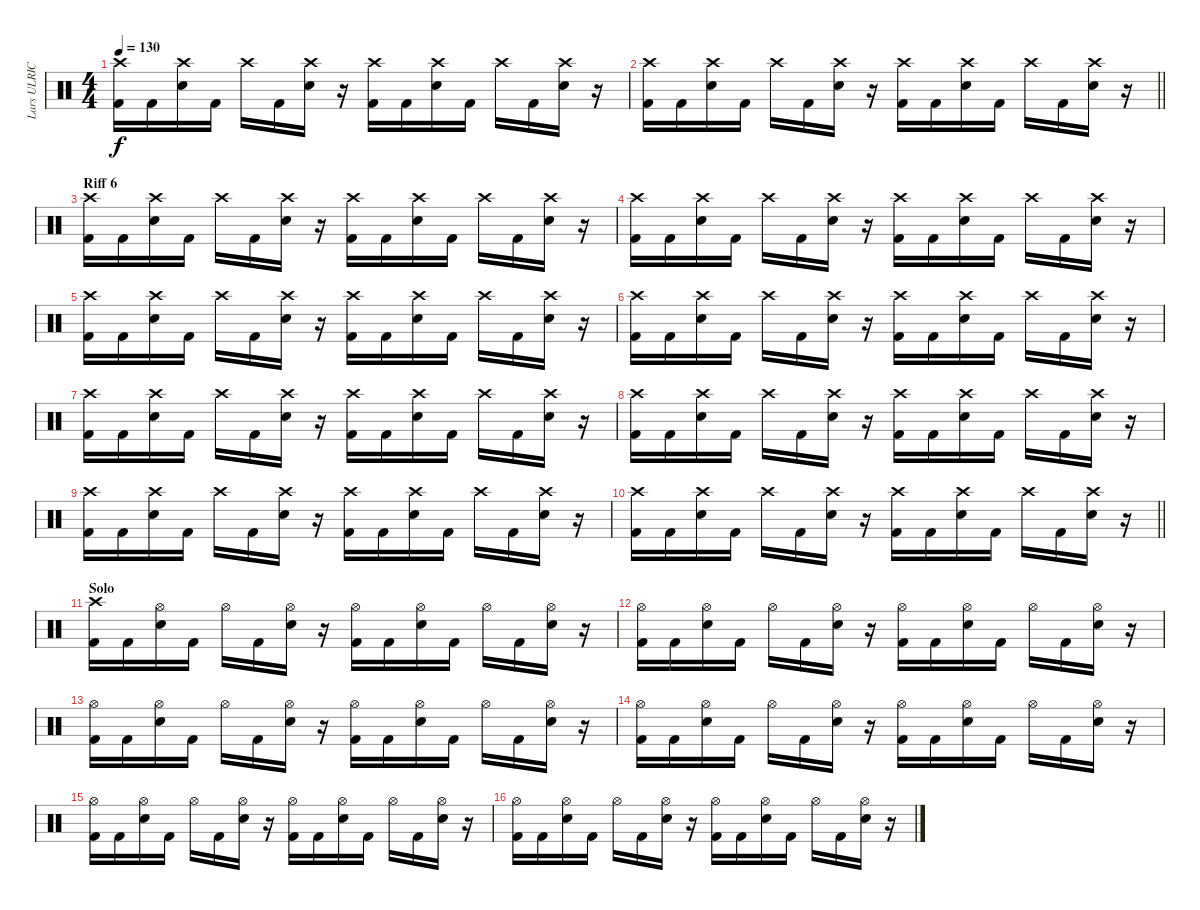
\track ("Lars ULRICH" "Lars ULRIC") {instrument percussion}
\staff {score}
\articulation defaults
\ts (4 4)
\tempo 130
\clef neutral
\ks c
("Crash high (hit)" "Kick (hit) 2").16{dy f} "Kick (hit) 2".16 ("Crash high (hit)" "Snare (hit) 2").16 "Kick (hit) 2".16 "Crash high (hit)".16 "Kick (hit) 2".16 ("Crash high (hit)" "Snare (hit) 2").16 r.16 ("Crash high (hit)" "Kick (hit) 2").16 "Kick (hit) 2".16 ("Crash high (hit)" "Snare (hit) 2").16 "Kick (hit) 2".16 "Crash high (hit)".16 "Kick (hit) 2".16 ("Crash high (hit)" "Snare (hit) 2").16 r.16 |
\barLineRight lightlight
("Crash high (hit)" "Kick (hit) 2").16 "Kick (hit) 2".16 ("Crash high (hit)" "Snare (hit) 2").16 "Kick (hit) 2".16 "Crash high (hit)".16 "Kick (hit) 2".16 ("Crash high (hit)" "Snare (hit) 2").16 r.16 ("Crash high (hit)" "Kick (hit) 2").16 "Kick (hit) 2".16 ("Crash high (hit)" "Snare (hit) 2").16 "Kick (hit) 2".16 "Crash high (hit)".16 "Kick (hit) 2".16 ("Crash high (hit)" "Snare (hit) 2").16 r.16 |
\section ("" "Riff 6")
("Crash high (hit)" "Kick (hit) 2").16 "Kick (hit) 2".16 ("Crash high (hit)" "Snare (hit) 2").16 "Kick (hit) 2".16 "Crash high (hit)".16 "Kick (hit) 2".16 ("Crash high (hit)" "Snare (hit) 2").16 r.16 ("Crash high (hit)" "Kick (hit) 2").16 "Kick (hit) 2".16 ("Crash high (hit)" "Snare (hit) 2").16 "Kick (hit) 2".16 "Crash high (hit)".16 "Kick (hit) 2".16 ("Crash high (hit)" "Snare (hit) 2").16 r.16 |
("Crash high (hit)" "Kick (hit) 2").16 "Kick (hit) 2".16 ("Crash high (hit)" "Snare (hit) 2").16 "Kick (hit) 2".16 "Crash high (hit)".16 "Kick (hit) 2".16 ("Crash high (hit)" "Snare (hit) 2").16 r.16 ("Crash high (hit)" "Kick (hit) 2").16 "Kick (hit) 2".16 ("Crash high (hit)" "Snare (hit) 2").16 "Kick (hit) 2".16 "Crash high (hit)".16 "Kick (hit) 2".16 ("Crash high (hit)" "Snare (hit) 2").16 r.16 |
("Crash high (hit)" "Kick (hit) 2").16 "Kick (hit) 2".16 ("Crash high (hit)" "Snare (hit) 2").16 "Kick (hit) 2".16 "Crash high (hit)".16 "Kick (hit) 2".16 ("Crash high (hit)" "Snare (hit) 2").16 r.16 ("Crash high (hit)" "Kick (hit) 2").16 "Kick (hit) 2".16 ("Crash high (hit)" "Snare (hit) 2").16 "Kick (hit) 2".16 "Crash high (hit)".16 "Kick (hit) 2".16 ("Crash high (hit)" "Snare (hit) 2").16 r.16 |
("Crash high (hit)" "Kick (hit) 2").16 "Kick (hit) 2".16 ("Crash high (hit)" "Snare (hit) 2").16 "Kick (hit) 2".16 "Crash high (hit)".16 "Kick (hit) 2".16 ("Crash high (hit)" "Snare (hit) 2").16 r.16 ("Crash high (hit)" "Kick (hit) 2").16 "Kick (hit) 2".16 ("Crash high (hit)" "Snare (hit) 2").16 "Kick (hit) 2".16 "Crash high (hit)".16 "Kick (hit) 2".16 ("Crash high (hit)" "Snare (hit) 2").16 r.16 |
("Crash high (hit)" "Kick (hit) 2").16 "Kick (hit) 2".16 ("Crash high (hit)" "Snare (hit) 2").16 "Kick (hit) 2".16 "Crash high (hit)".16 "Kick (hit) 2".16 ("Crash high (hit)" "Snare (hit) 2").16 r.16 ("Crash high (hit)" "Kick (hit) 2").16 "Kick (hit) 2".16 ("Crash high (hit)" "Snare (hit) 2").16 "Kick (hit) 2".16 "Crash high (hit)".16 "Kick (hit) 2".16 ("Crash high (hit)" "Snare (hit) 2").16 r.16 |
("Crash high (hit)" "Kick (hit) 2").16 "Kick (hit) 2".16 ("Crash high (hit)" "Snare (hit) 2").16 "Kick (hit) 2".16 "Crash high (hit)".16 "Kick (hit) 2".16 ("Crash high (hit)" "Snare (hit) 2").16 r.16 ("Crash high (hit)" "Kick (hit) 2").16 "Kick (hit) 2".16 ("Crash high (hit)" "Snare (hit) 2").16 "Kick (hit) 2".16 "Crash high (hit)".16 "Kick (hit) 2".16 ("Crash high (hit)" "Snare (hit) 2").16 r.16 |
("Crash high (hit)" "Kick (hit) 2").16 "Kick (hit) 2".16 ("Crash high (hit)" "Snare (hit) 2").16 "Kick (hit) 2".16 "Crash high (hit)".16 "Kick (hit) 2".16 ("Crash high (hit)" "Snare (hit) 2").16 r.16 ("Crash high (hit)" "Kick (hit) 2").16 "Kick (hit) 2".16 ("Crash high (hit)" "Snare (hit) 2").16 "Kick (hit) 2".16 "Crash high (hit)".16 "Kick (hit) 2".16 ("Crash high (hit)" "Snare (hit) 2").16 r.16 |
\barLineRight lightlight
("Crash high (hit)" "Kick (hit) 2").16 "Kick (hit) 2".16 ("Crash high (hit)" "Snare (hit) 2").16 "Kick (hit) 2".16 "Crash high (hit)".16 "Kick (hit) 2".16 ("Crash high (hit)" "Snare (hit) 2").16 r.16 ("Crash high (hit)" "Kick (hit) 2").16 "Kick (hit) 2".16 ("Crash high (hit)" "Snare (hit) 2").16 "Kick (hit) 2".16 "Crash high (hit)".16 "Kick (hit) 2".16 ("Crash high (hit)" "Snare (hit) 2").16 r.16 |
\section ("" "Solo")
("Crash high (hit)" "Kick (hit) 2").16 "Kick (hit) 2".16 ("Hi-Hat (open)" "Snare (hit) 2").16 "Kick (hit) 2".16 "Hi-Hat (open)".16 "Kick (hit) 2".16 ("Hi-Hat (open)" "Snare (hit) 2").16 r.16 ("Hi-Hat (open)" "Kick (hit) 2").16 "Kick (hit) 2".16 ("Hi-Hat (open)" "Snare (hit) 2").16 "Kick (hit) 2".16 "Hi-Hat (open)".16 "Kick (hit) 2".16 ("Hi-Hat (open)" "Snare (hit) 2").16 r.16 |
("Hi-Hat (open)" "Kick (hit) 2").16 "Kick (hit) 2".16 ("Hi-Hat (open)" "Snare (hit) 2").16 "Kick (hit) 2".16 "Hi-Hat (open)".16 "Kick (hit) 2".16 ("Hi-Hat (open)" "Snare (hit) 2").16 r.16 ("Hi-Hat (open)" "Kick (hit) 2").16 "Kick (hit) 2".16 ("Hi-Hat (open)" "Snare (hit) 2").16 "Kick (hit) 2".16 "Hi-Hat (open)".16 "Kick (hit) 2".16 ("Hi-Hat (open)" "Snare (hit) 2").16 r.16 |
("Hi-Hat (open)" "Kick (hit) 2").16 "Kick (hit) 2".16 ("Hi-Hat (open)" "Snare (hit) 2").16 "Kick (hit) 2".16 "Hi-Hat (open)".16 "Kick (hit) 2".16 ("Hi-Hat (open)" "Snare (hit) 2").16 r.16 ("Hi-Hat (open)" "Kick (hit) 2").16 "Kick (hit) 2".16 ("Hi-Hat (open)" "Snare (hit) 2").16 "Kick (hit) 2".16 "Hi-Hat (open)".16 "Kick (hit) 2".16 ("Hi-Hat (open)" "Snare (hit) 2").16 r.16 |
("Hi-Hat (open)" "Kick (hit) 2").16 "Kick (hit) 2".16 ("Hi-Hat (open)" "Snare (hit) 2").16 "Kick (hit) 2".16 "Hi-Hat (open)".16 "Kick (hit) 2".16 ("Hi-Hat (open)" "Snare (hit) 2").16 r.16 ("Hi-Hat (open)" "Kick (hit) 2").16 "Kick (hit) 2".16 ("Hi-Hat (open)" "Snare (hit) 2").16 "Kick (hit) 2".16 "Hi-Hat (open)".16 "Kick (hit) 2".16 ("Hi-Hat (open)" "Snare (hit) 2").16 r.16 |
("Hi-Hat (open)" "Kick (hit) 2").16 "Kick (hit) 2".16 ("Hi-Hat (open)" "Snare (hit) 2").16 "Kick (hit) 2".16 "Hi-Hat (open)".16 "Kick (hit) 2".16 ("Hi-Hat (open)" "Snare (hit) 2").16 r.16 ("Hi-Hat (open)" "Kick (hit) 2").16 "Kick (hit) 2".16 ("Hi-Hat (open)" "Snare (hit) 2").16 "Kick (hit) 2".16 "Hi-Hat (open)".16 "Kick (hit) 2".16 ("Hi-Hat (open)" "Snare (hit) 2").16 r.16 |
("Hi-Hat (open)" "Kick (hit) 2").16 "Kick (hit) 2".16 ("Hi-Hat (open)" "Snare (hit) 2").16 "Kick (hit) 2".16 "Hi-Hat (open)".16 "Kick (hit) 2".16 ("Hi-Hat (open)" "Snare (hit) 2").16 r.16 ("Hi-Hat (open)" "Kick (hit) 2").16 "Kick (hit) 2".16 ("Hi-Hat (open)" "Snare (hit) 2").16 "Kick (hit) 2".16 "Hi-Hat (open)".16 "Kick (hit) 2".16 ("Hi-Hat (open)" "Snare (hit) 2").16 r.16
